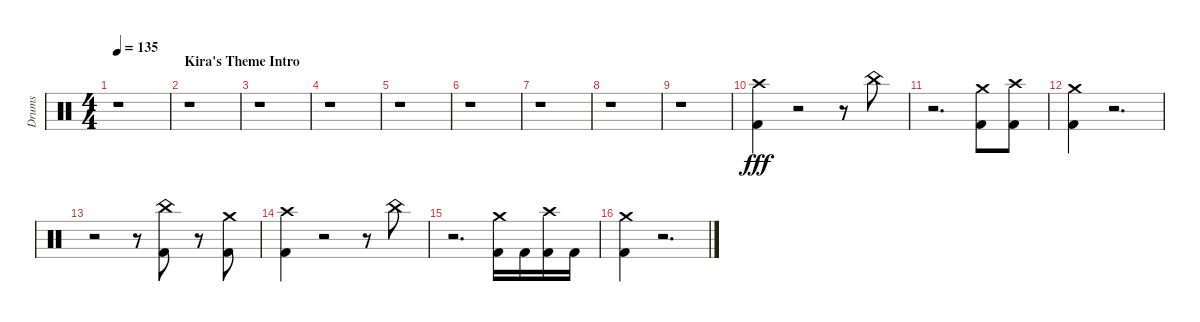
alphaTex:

\track ("Drums" "Drums") {instrument percussion}
\staff {score}
\articulation defaults
\ts (4 4)
\tempo 135
\clef neutral
\ks aminor
r.1{dy fff} |
\section ("" "Kira's Theme Intro")
r.1 |
r.1 |
r.1 |
r.1 |
r.1 |
r.1 |
r.1 |
r.1 |
("Kick (hit) 2" "Crash high (hit)").4 r.2 r.8 "China (hit)".8 |
r.2{d} ("Kick (hit) 2" "Crash medium (hit)").8 ("Kick (hit) 2" "Crash high (hit)").8 |
("Kick (hit) 2" "Crash medium (hit)").4 r.2{d} |
r.2 r.8 ("Kick (hit) 2" "China (hit)").8 r.8 ("Kick (hit) 2" "Crash medium (hit)").8 |
("Kick (hit) 2" "Crash high (hit)").4 r.2 r.8 "China (hit)".8 |
r.2{d} ("Kick (hit) 2" "Crash medium (hit)").16 "Kick (hit) 2".16 ("Kick (hit) 2" "Crash high (hit)").16 "Kick (hit) 2".16 |
("Kick (hit) 2" "Crash medium (hit)").4 r.2{d}
